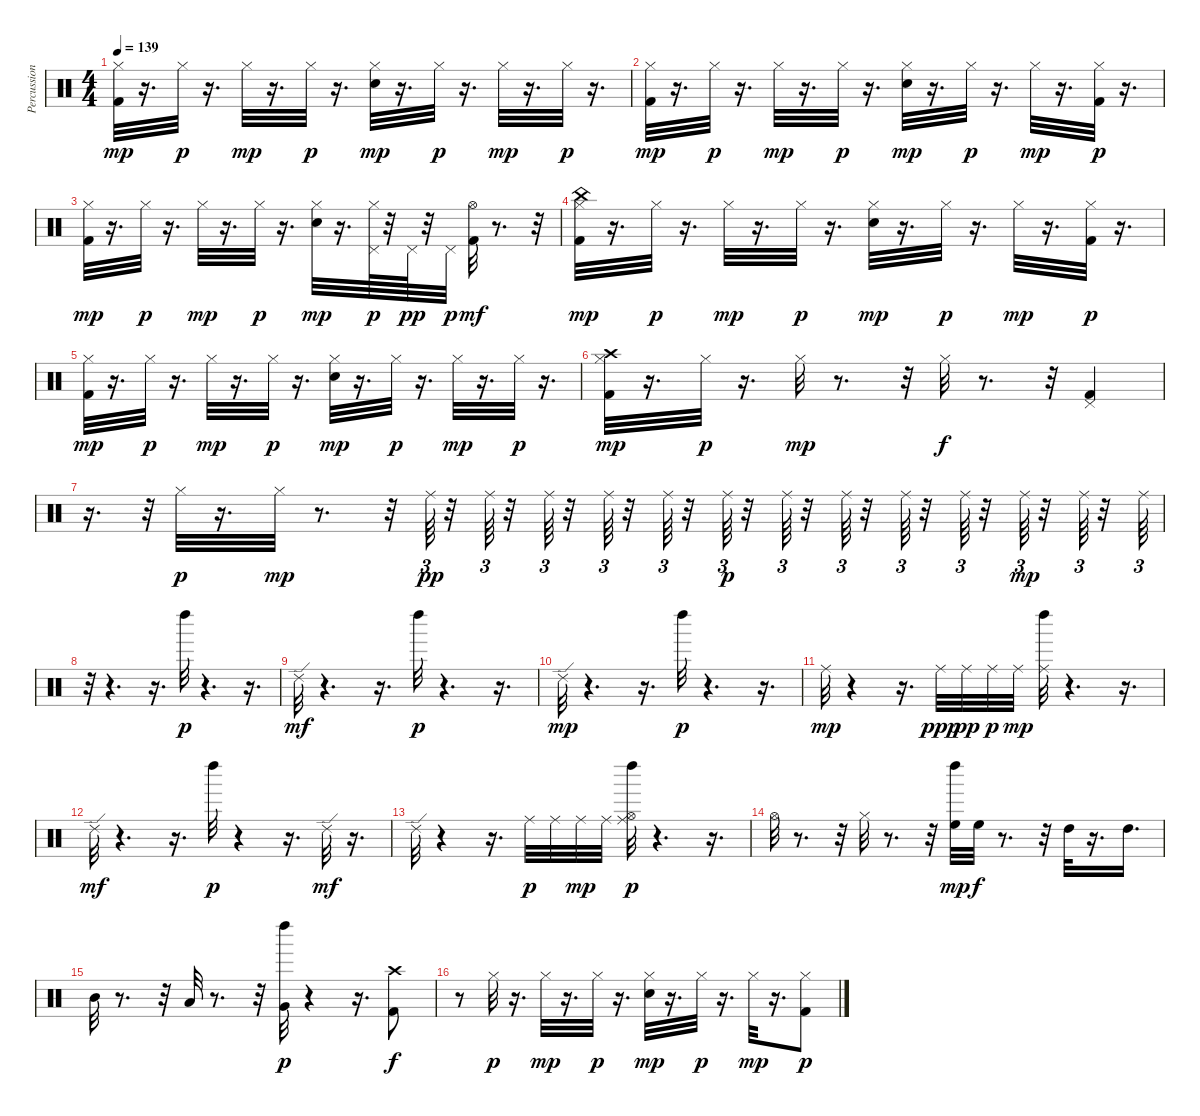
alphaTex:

\track ("Percussion" "Percussion") {instrument percussion}
\staff {score}
\articulation defaults
\ts (4 4)
\tempo 139
\clef neutral
\ks c
("Hi-Hat (closed)" "Kick (hit) 2").32{dy mp} r.16{d} "Hi-Hat (closed)".32{dy p} r.16{d} "Hi-Hat (closed)".32{dy mp} r.16{d} "Hi-Hat (closed)".32{dy p} r.16{d} ("Hi-Hat (closed)" "Snare (hit) 2").32{dy mp} r.16{d} "Hi-Hat (closed)".32{dy p} r.16{d} "Hi-Hat (closed)".32{dy mp} r.16{d} "Hi-Hat (closed)".32{dy p} r.16{d} |
("Hi-Hat (closed)" "Kick (hit) 2").32{dy mp} r.16{d} "Hi-Hat (closed)".32{dy p} r.16{d} "Hi-Hat (closed)".32{dy mp} r.16{d} "Hi-Hat (closed)".32{dy p} r.16{d} ("Hi-Hat (closed)" "Snare (hit) 2").32{dy mp} r.16{d} "Hi-Hat (closed)".32{dy p} r.16{d} "Hi-Hat (closed)".32{dy mp} r.16{d} ("Hi-Hat (closed)" "Kick (hit) 2").32{dy p} r.16{d} |
("Hi-Hat (closed)" "Kick (hit) 2").32{dy mp} r.16{d} "Hi-Hat (closed)".32{dy p} r.16{d} "Hi-Hat (closed)".32{dy mp} r.16{d} "Hi-Hat (closed)".32{dy p} r.16{d} ("Hi-Hat (closed)" "Snare (hit) 2").32{dy mp} r.16{d} ("Pedal Hi-Hat (hit)" "Hi-Hat (closed)").64{dy p} r.32 "Pedal Hi-Hat (hit)".64{dy pp} r.32 "Pedal Hi-Hat (hit)".32{dy p} ("Hi-Hat (open)" "Kick (hit) 2").32{dy mf} r.8{d} r.32 |
("China (hit)" "Hi-Hat (closed)" "Kick (hit) 2").32{dy mp} r.16{d} "Hi-Hat (closed)".32{dy p} r.16{d} "Hi-Hat (closed)".32{dy mp} r.16{d} "Hi-Hat (closed)".32{dy p} r.16{d} ("Hi-Hat (closed)" "Snare (hit) 2").32{dy mp} r.16{d} "Hi-Hat (closed)".32{dy p} r.16{d} "Hi-Hat (closed)".32{dy mp} r.16{d} ("Hi-Hat (closed)" "Kick (hit) 2").32{dy p} r.16{d} |
("Hi-Hat (closed)" "Kick (hit) 2").32{dy mp} r.16{d} "Hi-Hat (closed)".32{dy p} r.16{d} "Hi-Hat (closed)".32{dy mp} r.16{d} "Hi-Hat (closed)".32{dy p} r.16{d} ("Hi-Hat (closed)" "Snare (hit) 2").32{dy mp} r.16{d} "Hi-Hat (closed)".32{dy p} r.16{d} "Hi-Hat (closed)".32{dy mp} r.16{d} "Hi-Hat (closed)".32{dy p} r.16{d} |
("Crash high (hit)" "Hi-Hat (closed)" "Kick (hit) 2").32{dy mp} r.16{d} "Hi-Hat (closed)".32{dy p} r.16{d} "Hi-Hat (closed)".32{dy mp} r.8{d} r.32 "Hi-Hat (closed)".32{dy f} r.8{d} r.32 ("Pedal Hi-Hat (hit)" "Kick (hit) 2").4 |
r.16{d} r.32{tu (3 2)} "Hi-Hat (closed)".32{dy p} r.16{d} "Hi-Hat (closed)".32{dy mp} r.8{d} r.32 "Ride (middle)".64{tu (3 2) dy pp} r.32 "Ride (middle)".64{tu (3 2)} r.32 "Ride (middle)".64{tu (3 2)} r.32 "Ride (middle)".64{tu (3 2)} r.32 "Ride (middle)".64{tu (3 2)} r.32 "Ride (middle)".64{tu (3 2) dy p} r.32 "Ride (middle)".64{tu (3 2)} r.32 "Ride (middle)".64{tu (3 2)} r.32 "Ride (middle)".64{tu (3 2)} r.32 "Ride (middle)".64{tu (3 2)} r.32 "Ride (middle)".64{tu (3 2) dy mp} r.32 "Ride (middle)".64{tu (3 2)} r.32 "Ride (middle)".64{tu (3 2)} |
r.32 r.4{d} r.16{d} "Left Maraca (hit)".32{dy p} r.4{d} r.16{d} |
"Ride (edge) 2".32{dy mf} r.4{d} r.16{d} "Left Maraca (hit)".32{dy p} r.4{d} r.16{d} |
"Ride (edge) 2".32{dy mp} r.4{d} r.16{d} "Left Maraca (hit)".32{dy p} r.4{d} r.16{d} |
"Ride (middle)".32{dy mp} r.4 r.16{d} "Ride (middle)".32{dy ppp} "Ride (middle)".32{dy pp} "Ride (middle)".32{dy p} "Ride (middle)".32{dy mp} ("Left Maraca (hit)" "Ride (middle)").32 r.4{d} r.16{d} |
"Ride (edge) 2".32{dy mf} r.4{d} r.16{d} "Left Maraca (hit)".32{dy p} r.4 r.16{d} "Ride (edge) 2".32{dy mf} r.16{d} |
"Ride (edge) 2".32 r.4 r.16{d} "Ride (middle)".32{dy p} "Ride (middle)".32 "Ride (middle)".32{dy mp} "Ride (middle)".32 ("Left Maraca (hit)" "Ride (middle)" "Hi-Hat (open)").32{dy p} r.4{d} r.16{d} |
"Hi-Hat (open)".32 r.8{d} r.32 "Hi-Hat (closed)".32 r.8{d} r.32 ("Left Maraca (hit)" "High Floor Tom (hit)").32{dy mp} "High Floor Tom (hit)".32{dy f} r.8{d} r.32 "High Tom (hit)".32 r.16{d} "High Tom (hit)".16{d} |
"Mid Tom (hit)".32 r.8{d} r.32 "Low Tom (hit)".32 r.8{d} r.32 ("Left Maraca (hit)" "Very Low Tom (hit)").32{dy p} r.4 r.16{d} ("Crash high (hit)" "Kick (hit) 2").8{dy f} |
r.8 "Hi-Hat (closed)".32{dy p} r.16{d} "Hi-Hat (closed)".32{dy mp} r.16{d} "Hi-Hat (closed)".32{dy p} r.16{d} ("Hi-Hat (closed)" "Snare (hit) 2").32{dy mp} r.16{d} "Hi-Hat (closed)".32{dy p} r.16{d} "Hi-Hat (closed)".32{dy mp} r.16{d} ("Hi-Hat (closed)" "Kick (hit) 2").8{dy p}
